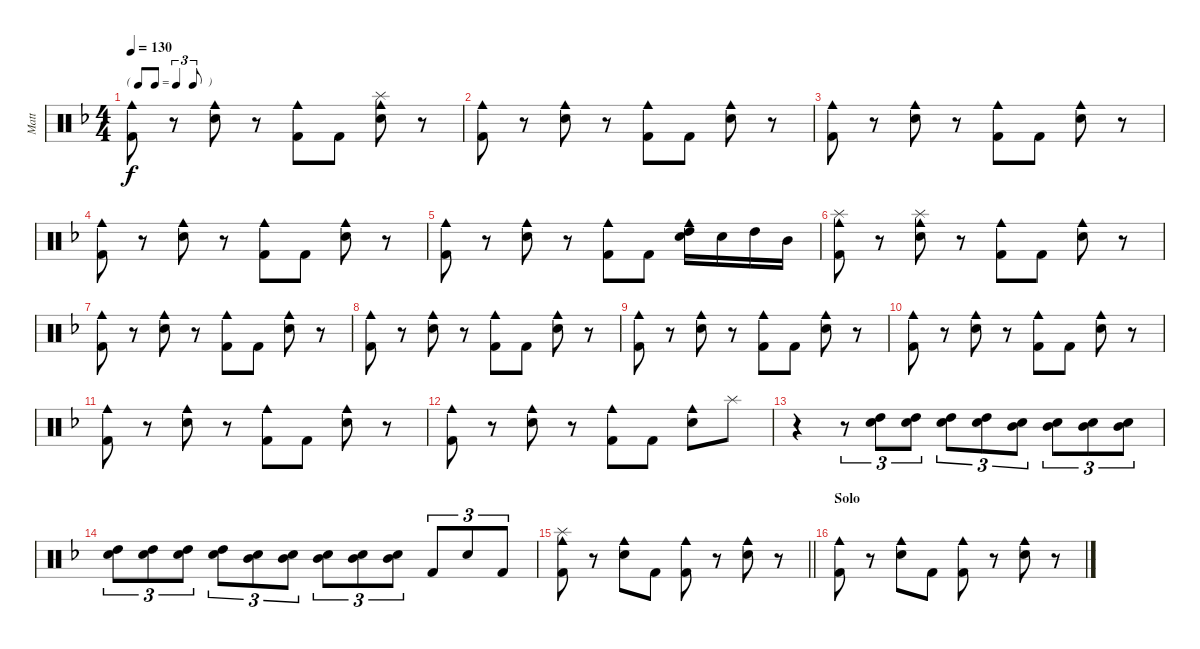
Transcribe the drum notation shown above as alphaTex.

\track ("Matt" "Matt") {instrument percussion}
\staff {score}
\articulation defaults
\ts (4 4)
\tf triplet8th
\tempo 130
\clef neutral
\ks f
("Cowbell medium (hit)" "Kick (hit) 2").8{dy f} r.8 ("Cowbell medium (hit)" "Snare (hit) 2").8 r.8 ("Cowbell medium (hit)" "Kick (hit) 2").8 "Kick (hit) 2".8 ("Cowbell medium (hit)" "Snare (hit) 2" "Splash (hit)").8 r.8 |
("Cowbell medium (hit)" "Kick (hit) 2").8 r.8 ("Cowbell medium (hit)" "Snare (hit) 2").8 r.8 ("Cowbell medium (hit)" "Kick (hit) 2").8 "Kick (hit) 2".8 ("Cowbell medium (hit)" "Snare (hit) 2").8 r.8 |
("Cowbell medium (hit)" "Kick (hit) 2").8 r.8 ("Cowbell medium (hit)" "Snare (hit) 2").8 r.8 ("Cowbell medium (hit)" "Kick (hit) 2").8 "Kick (hit) 2".8 ("Cowbell medium (hit)" "Snare (hit) 2").8 r.8 |
("Cowbell medium (hit)" "Kick (hit) 2").8 r.8 ("Cowbell medium (hit)" "Snare (hit) 2").8 r.8 ("Cowbell medium (hit)" "Kick (hit) 2").8 "Kick (hit) 2".8 ("Cowbell medium (hit)" "Snare (hit) 2").8 r.8 |
("Cowbell medium (hit)" "Kick (hit) 2").8 r.8 ("Cowbell medium (hit)" "Snare (hit) 2").8 r.8 ("Cowbell medium (hit)" "Kick (hit) 2").8 "Kick (hit) 2".8 ("Cowbell medium (hit)" "Snare (hit) 2" "High Tom (hit)").16 "Snare (hit) 2".16 "High Tom (hit)".16 "Mid Tom (hit)".16 |
("Cowbell medium (hit)" "Kick (hit) 2" "Splash (hit)").8 r.8 ("Cowbell medium (hit)" "Snare (hit) 2" "Splash (hit)").8 r.8 ("Cowbell medium (hit)" "Kick (hit) 2").8 "Kick (hit) 2".8 ("Cowbell medium (hit)" "Snare (hit) 2").8 r.8 |
("Cowbell medium (hit)" "Kick (hit) 2").8 r.8 ("Cowbell medium (hit)" "Snare (hit) 2").8 r.8 ("Cowbell medium (hit)" "Kick (hit) 2").8 "Kick (hit) 2".8 ("Cowbell medium (hit)" "Snare (hit) 2").8 r.8 |
("Cowbell medium (hit)" "Kick (hit) 2").8 r.8 ("Cowbell medium (hit)" "Snare (hit) 2").8 r.8 ("Cowbell medium (hit)" "Kick (hit) 2").8 "Kick (hit) 2".8 ("Cowbell medium (hit)" "Snare (hit) 2").8 r.8 |
("Cowbell medium (hit)" "Kick (hit) 2").8 r.8 ("Cowbell medium (hit)" "Snare (hit) 2").8 r.8 ("Cowbell medium (hit)" "Kick (hit) 2").8 "Kick (hit) 2".8 ("Cowbell medium (hit)" "Snare (hit) 2").8 r.8 |
("Cowbell medium (hit)" "Kick (hit) 2").8 r.8 ("Cowbell medium (hit)" "Snare (hit) 2").8 r.8 ("Cowbell medium (hit)" "Kick (hit) 2").8 "Kick (hit) 2".8 ("Cowbell medium (hit)" "Snare (hit) 2").8 r.8 |
("Cowbell medium (hit)" "Kick (hit) 2").8 r.8 ("Cowbell medium (hit)" "Snare (hit) 2").8 r.8 ("Cowbell medium (hit)" "Kick (hit) 2").8 "Kick (hit) 2".8 ("Cowbell medium (hit)" "Snare (hit) 2").8 r.8 |
("Cowbell medium (hit)" "Kick (hit) 2").8 r.8 ("Cowbell medium (hit)" "Snare (hit) 2").8 r.8 ("Cowbell medium (hit)" "Kick (hit) 2").8 "Kick (hit) 2".8 ("Cowbell medium (hit)" "Snare (hit) 2").8 "Splash (hit)".8 |
r.4 r.8{tu (3 2)} ("Snare (hit) 2" "High Tom (hit)").8{tu (3 2)} ("Snare (hit) 2" "High Tom (hit)").8{tu (3 2)} ("Snare (hit) 2" "High Tom (hit)").8{tu (3 2)} ("Snare (hit) 2" "High Tom (hit)").8{tu (3 2)} ("Snare (hit) 2" "Mid Tom (hit)").8{tu (3 2)} ("Snare (hit) 2" "Mid Tom (hit)").8{tu (3 2)} ("Snare (hit) 2" "Mid Tom (hit)").8{tu (3 2)} ("Snare (hit) 2" "Mid Tom (hit)").8{tu (3 2)} |
("Snare (hit) 2" "High Tom (hit)").8{tu (3 2)} ("Snare (hit) 2" "High Tom (hit)").8{tu (3 2)} ("Snare (hit) 2" "High Tom (hit)").8{tu (3 2)} ("Snare (hit) 2" "High Tom (hit)").8{tu (3 2)} ("Snare (hit) 2" "Mid Tom (hit)").8{tu (3 2)} ("Snare (hit) 2" "Mid Tom (hit)").8{tu (3 2)} ("Snare (hit) 2" "Mid Tom (hit)").8{tu (3 2)} ("Snare (hit) 2" "Mid Tom (hit)").8{tu (3 2)} ("Snare (hit) 2" "Mid Tom (hit)").8{tu (3 2)} "Kick (hit) 2".8{tu (3 2)} "Snare (hit) 2".8{tu (3 2)} "Kick (hit) 2".8{tu (3 2)} |
\barLineRight lightlight
("Cowbell medium (hit)" "Kick (hit) 2" "Splash (hit)").8 r.8 ("Cowbell medium (hit)" "Snare (hit) 2").8 "Kick (hit) 2".8 ("Cowbell medium (hit)" "Kick (hit) 2").8 r.8 ("Cowbell medium (hit)" "Snare (hit) 2").8 r.8 |
\section ("" "Solo")
("Cowbell medium (hit)" "Kick (hit) 2").8 r.8 ("Cowbell medium (hit)" "Snare (hit) 2").8 "Kick (hit) 2".8 ("Cowbell medium (hit)" "Kick (hit) 2").8 r.8 ("Cowbell medium (hit)" "Snare (hit) 2").8 r.8
